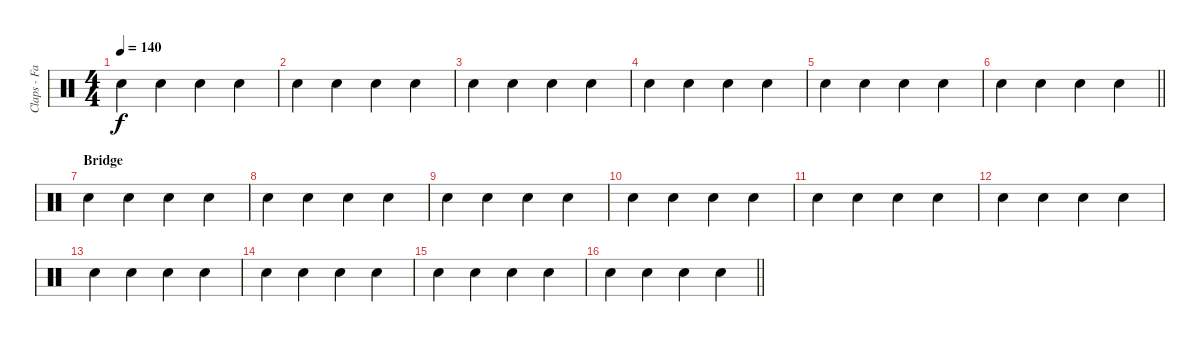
\track ("Claps - Fans" "Claps - Fa") {instrument percussion}
\staff {score}
\articulation defaults
\ts (4 4)
\tempo 140
\clef neutral
\ks c "Hand Clap (hit)".4{dy f} "Hand Clap (hit)".4 "Hand Clap (hit)".4 "Hand Clap (hit)".4
|
"Hand Clap (hit)".4 "Hand Clap (hit)".4 "Hand Clap (hit)".4 "Hand Clap (hit)".4 |
"Hand Clap (hit)".4 "Hand Clap (hit)".4 "Hand Clap (hit)".4 "Hand Clap (hit)".4 |
"Hand Clap (hit)".4 "Hand Clap (hit)".4 "Hand Clap (hit)".4 "Hand Clap (hit)".4 |
"Hand Clap (hit)".4 "Hand Clap (hit)".4 "Hand Clap (hit)".4 "Hand Clap (hit)".4 |
\barLineRight lightlight "Hand Clap (hit)".4 "Hand Clap (hit)".4 "Hand Clap (hit)".4 "Hand Clap (hit)".4
|
\section ("" "Bridge")
"Hand Clap (hit)".4 "Hand Clap (hit)".4 "Hand Clap (hit)".4 "Hand Clap (hit)".4 |
"Hand Clap (hit)".4 "Hand Clap (hit)".4 "Hand Clap (hit)".4 "Hand Clap (hit)".4 |
"Hand Clap (hit)".4 "Hand Clap (hit)".4 "Hand Clap (hit)".4 "Hand Clap (hit)".4 |
"Hand Clap (hit)".4 "Hand Clap (hit)".4 "Hand Clap (hit)".4 "Hand Clap (hit)".4 |
"Hand Clap (hit)".4 "Hand Clap (hit)".4 "Hand Clap (hit)".4 "Hand Clap (hit)".4 |
"Hand Clap (hit)".4 "Hand Clap (hit)".4 "Hand Clap (hit)".4 "Hand Clap (hit)".4 |
"Hand Clap (hit)".4 "Hand Clap (hit)".4 "Hand Clap (hit)".4 "Hand Clap (hit)".4 |
"Hand Clap (hit)".4 "Hand Clap (hit)".4 "Hand Clap (hit)".4 "Hand Clap (hit)".4 |
"Hand Clap (hit)".4 "Hand Clap (hit)".4 "Hand Clap (hit)".4 "Hand Clap (hit)".4 |
\barLineRight lightlight "Hand Clap (hit)".4 "Hand Clap (hit)".4 "Hand Clap (hit)".4 "Hand Clap (hit)".4
